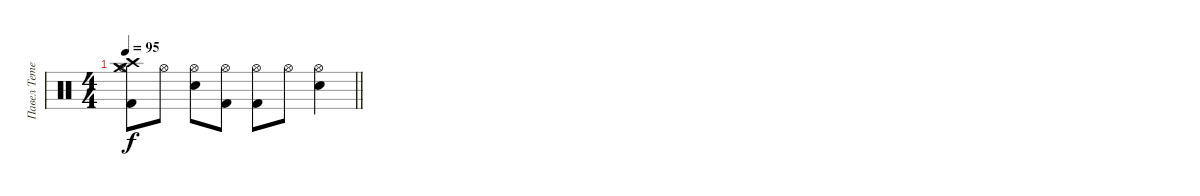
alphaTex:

\track ("Павел Тетерин" "Павел Тете") {instrument percussion}
\staff {score}
\articulation defaults
\ts (4 4)
\tempo 95
\clef neutral
\barLineRight lightlight
\ks c
("Crash high (hit)" "Hi-Hat (open)" "Kick (hit) 2" "Crash medium (hit)").8{dy f} "Hi-Hat (open)".8 ("Hi-Hat (open)" "Snare (hit) 2").8 ("Hi-Hat (open)" "Kick (hit) 2").8 ("Hi-Hat (open)" "Kick (hit) 2").8 "Hi-Hat (open)".8 ("Hi-Hat (open)" "Snare (hit) 2").4
